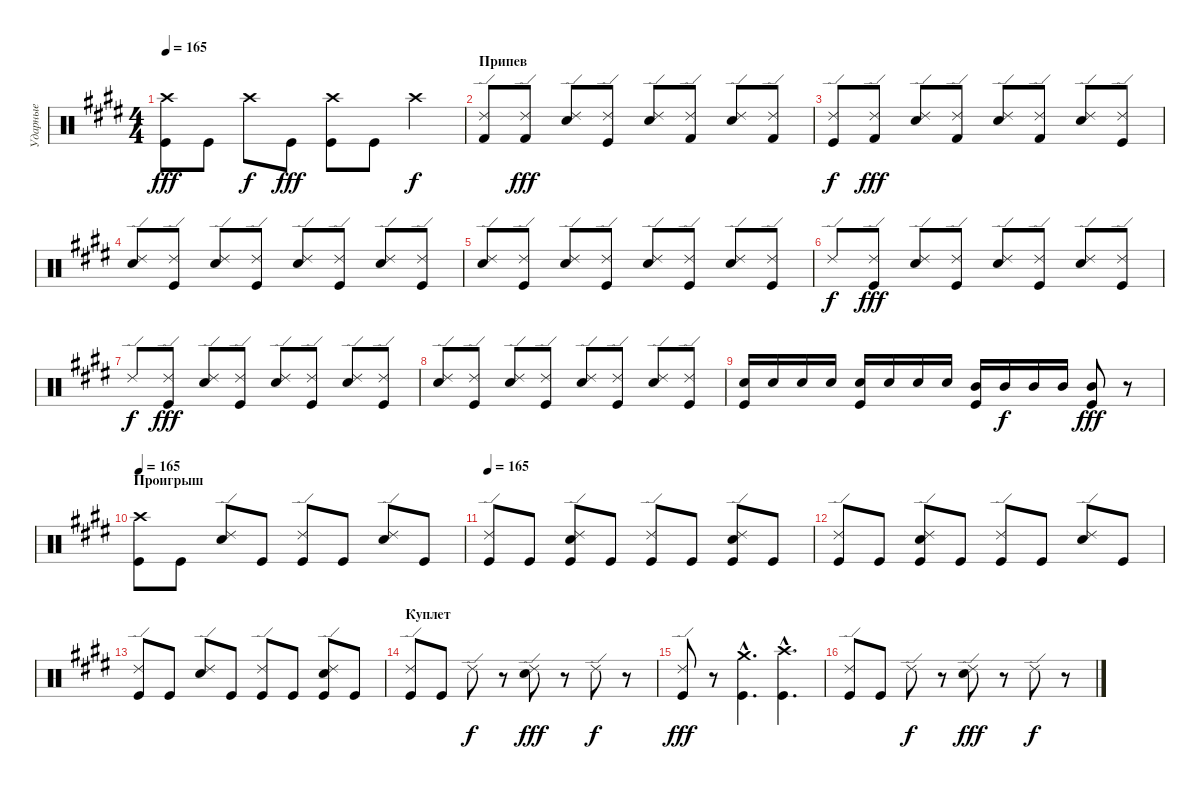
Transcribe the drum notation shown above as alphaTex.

\track ("Ударные" "Ударные") {instrument percussion}
\staff {score}
\articulation defaults
\ts (4 4)
\tempo 165
\clef neutral
\ks e
("Crash high (hit)" "Kick (hit)").8{dy fff} "Kick (hit)".8 "Crash high (hit)".8{dy f} "Kick (hit)".8{dy fff} ("Crash high (hit)" "Kick (hit)").8 "Kick (hit)".8 "Crash high (hit)".4{dy f} |
\section ("" "Припев")
("Ride (edge) 2" "Kick (hit) 2").8 ("Ride (edge) 2" "Kick (hit) 2").8{dy fff} ("Ride (edge) 2" "Snare (hit) 2").8 ("Ride (edge) 2" "Kick (hit)").8 ("Ride (edge) 2" "Snare (hit) 2").8 ("Ride (edge) 2" "Kick (hit) 2").8 ("Ride (edge) 2" "Snare (hit) 2").8 ("Ride (edge) 2" "Kick (hit) 2").8 |
("Ride (edge) 2" "Kick (hit)").8{dy f} ("Ride (edge) 2" "Kick (hit) 2").8{dy fff} ("Ride (edge) 2" "Snare (hit) 2").8 ("Ride (edge) 2" "Kick (hit) 2").8 ("Ride (edge) 2" "Snare (hit) 2").8 ("Ride (edge) 2" "Kick (hit) 2").8 ("Ride (edge) 2" "Snare (hit) 2").8 ("Ride (edge) 2" "Kick (hit)").8 |
("Ride (edge) 2" "Snare (hit) 2").8 ("Ride (edge) 2" "Kick (hit)").8 ("Ride (edge) 2" "Snare (hit) 2").8 ("Ride (edge) 2" "Kick (hit)").8 ("Ride (edge) 2" "Snare (hit) 2").8 ("Ride (edge) 2" "Kick (hit)").8 ("Ride (edge) 2" "Snare (hit) 2").8 ("Ride (edge) 2" "Kick (hit)").8 |
("Ride (edge) 2" "Snare (hit) 2").8 ("Ride (edge) 2" "Kick (hit)").8 ("Ride (edge) 2" "Snare (hit) 2").8 ("Ride (edge) 2" "Kick (hit)").8 ("Ride (edge) 2" "Snare (hit) 2").8 ("Ride (edge) 2" "Kick (hit)").8 ("Ride (edge) 2" "Snare (hit) 2").8 ("Ride (edge) 2" "Kick (hit)").8 |
"Ride (edge) 2".8{dy f} ("Ride (edge) 2" "Kick (hit)").8{dy fff} ("Ride (edge) 2" "Snare (hit) 2").8 ("Ride (edge) 2" "Kick (hit)").8 ("Ride (edge) 2" "Snare (hit) 2").8 ("Ride (edge) 2" "Kick (hit)").8 ("Ride (edge) 2" "Snare (hit) 2").8 ("Ride (edge) 2" "Kick (hit)").8 |
"Ride (edge) 2".8{dy f} ("Ride (edge) 2" "Kick (hit)").8{dy fff} ("Ride (edge) 2" "Snare (hit) 2").8 ("Ride (edge) 2" "Kick (hit)").8 ("Ride (edge) 2" "Snare (hit) 2").8 ("Ride (edge) 2" "Kick (hit)").8 ("Ride (edge) 2" "Snare (hit) 2").8 ("Ride (edge) 2" "Kick (hit)").8 |
("Ride (edge) 2" "Snare (hit) 2").8 ("Ride (edge) 2" "Kick (hit)").8 ("Ride (edge) 2" "Snare (hit) 2").8 ("Ride (edge) 2" "Kick (hit)").8 ("Ride (edge) 2" "Snare (hit) 2").8 ("Ride (edge) 2" "Kick (hit)").8 ("Ride (edge) 2" "Snare (hit) 2").8 ("Ride (edge) 2" "Kick (hit)").8 |
("Snare (hit) 2" "Kick (hit)").16 "Snare (hit) 2".16 "Snare (hit) 2".16 "Snare (hit) 2".16 ("Snare (hit) 2" "Kick (hit)").16 "Snare (hit) 2".16 "Snare (hit) 2".16 "Snare (hit) 2".16 ("Mid Tom (hit)" "Kick (hit)").16 "Mid Tom (hit)".16{dy f} "Mid Tom (hit)".16 "Mid Tom (hit)".16 ("Mid Tom (hit)" "Kick (hit)").8{dy fff} r.8 |
\section ("" "Проигрыш")
\tempo 165
("Crash high (hit)" "Kick (hit)").8 "Kick (hit)".8 ("Ride (edge) 2" "Snare (hit) 2").8 "Kick (hit)".8 ("Ride (edge) 2" "Kick (hit)").8 "Kick (hit)".8 ("Ride (edge) 2" "Snare (hit) 2").8 "Kick (hit)".8 |
\tempo 165
("Ride (edge) 2" "Kick (hit)").8 "Kick (hit)".8 ("Ride (edge) 2" "Snare (hit) 2" "Kick (hit)").8 "Kick (hit)".8 ("Ride (edge) 2" "Kick (hit)").8 "Kick (hit)".8 ("Ride (edge) 2" "Snare (hit) 2" "Kick (hit)").8 "Kick (hit)".8 |
("Ride (edge) 2" "Kick (hit)").8 "Kick (hit)".8 ("Ride (edge) 2" "Snare (hit) 2" "Kick (hit)").8 "Kick (hit)".8 ("Ride (edge) 2" "Kick (hit)").8 "Kick (hit)".8 ("Ride (edge) 2" "Snare (hit) 2").8 "Kick (hit)".8 |
("Ride (edge) 2" "Kick (hit)").8 "Kick (hit)".8 ("Ride (edge) 2" "Snare (hit) 2").8 "Kick (hit)".8 ("Ride (edge) 2" "Kick (hit)").8 "Kick (hit)".8 ("Ride (edge) 2" "Snare (hit) 2" "Kick (hit)").8 "Kick (hit)".8 |
\section ("" "Куплет")
("Ride (edge) 2" "Kick (hit)").8 "Kick (hit)".8 "Ride (edge) 2".8{dy f} r.8 ("Ride (edge) 2" "Snare (hit) 2").8{dy fff} r.8 "Ride (edge) 2".8{dy f} r.8 |
("Ride (edge) 2" "Kick (hit)").8{dy fff} r.8 ("Crash medium (hit)"{hac} "Kick (hit)"{hac}).4{d} ("Crash high (hit)"{hac} "Kick (hit)"{hac}).4{d} |
("Ride (edge) 2" "Kick (hit)").8 "Kick (hit)".8 "Ride (edge) 2".8{dy f} r.8 ("Ride (edge) 2" "Snare (hit) 2").8{dy fff} r.8 "Ride (edge) 2".8{dy f} r.8
